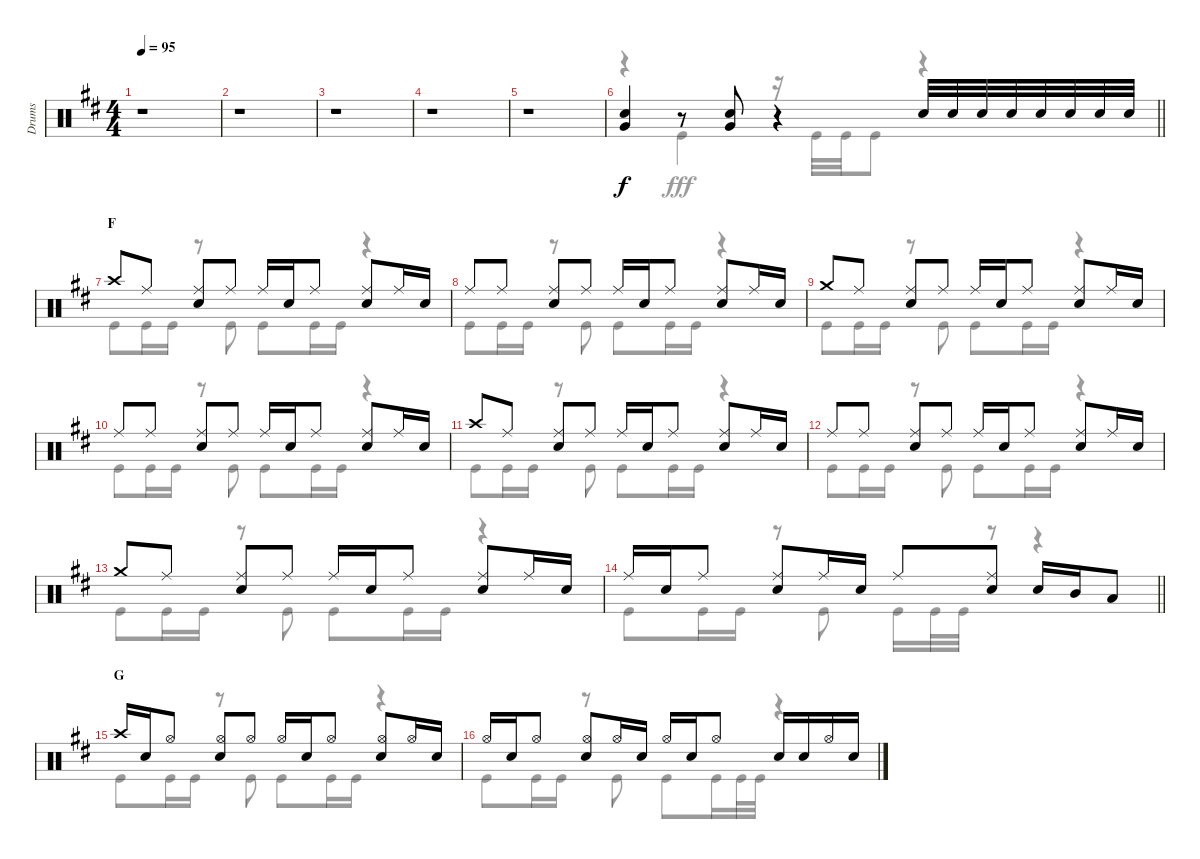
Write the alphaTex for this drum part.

\track ("Drums" "Drums") {instrument percussion}
\staff {score}
\articulation defaults
\voice
\ts (4 4)
\tempo 95
\clef neutral
\ks d
r.1{dy f} |
r.1 |
r.1 |
r.1 |
r.1 |
\barLineRight lightlight
("Snare (hit) 2" "Very Low Tom (hit)").4 r.8 ("Snare (hit) 2" "Very Low Tom (hit)").8 r.4 "Snare (hit) 2".32 "Snare (hit) 2".32 "Snare (hit) 2".32 "Snare (hit) 2".32 "Snare (hit) 2".32 "Snare (hit) 2".32 "Snare (hit) 2".32 "Snare (hit) 2".32 |
\section ("" "F")
"Crash high (hit)".8 "Ride (middle)".8 ("Ride (middle)" "Snare (hit) 2").8 "Ride (middle)".8 "Ride (middle)".16 "Snare (hit) 2".16 "Ride (middle)".8 ("Ride (middle)" "Snare (hit) 2").8 "Ride (middle)".16 "Snare (hit) 2".16 |
"Ride (middle)".8 "Ride (middle)".8 ("Ride (middle)" "Snare (hit) 2").8 "Ride (middle)".8 "Ride (middle)".16 "Snare (hit) 2".16 "Ride (middle)".8 ("Ride (middle)" "Snare (hit) 2").8 "Ride (middle)".16 "Snare (hit) 2".16 |
"Crash medium (hit)".8 "Ride (middle)".8 ("Ride (middle)" "Snare (hit) 2").8 "Ride (middle)".8 "Ride (middle)".16 "Snare (hit) 2".16 "Ride (middle)".8 ("Ride (middle)" "Snare (hit) 2").8 "Ride (middle)".16 "Snare (hit) 2".16 |
"Ride (middle)".8 "Ride (middle)".8 ("Ride (middle)" "Snare (hit) 2").8 "Ride (middle)".8 "Ride (middle)".16 "Snare (hit) 2".16 "Ride (middle)".8 ("Ride (middle)" "Snare (hit) 2").8 "Ride (middle)".16 "Snare (hit) 2".16 |
"Crash high (hit)".8 "Ride (middle)".8 ("Ride (middle)" "Snare (hit) 2").8 "Ride (middle)".8 "Ride (middle)".16 "Snare (hit) 2".16 "Ride (middle)".8 ("Ride (middle)" "Snare (hit) 2").8 "Ride (middle)".16 "Snare (hit) 2".16 |
"Ride (middle)".8 "Ride (middle)".8 ("Ride (middle)" "Snare (hit) 2").8 "Ride (middle)".8 "Ride (middle)".16 "Snare (hit) 2".16 "Ride (middle)".8 ("Ride (middle)" "Snare (hit) 2").8 "Ride (middle)".16 "Snare (hit) 2".16 |
"Crash medium (hit)".8 "Ride (middle)".8 ("Ride (middle)" "Snare (hit) 2").8 "Ride (middle)".8 "Ride (middle)".16 "Snare (hit) 2".16 "Ride (middle)".8 ("Ride (middle)" "Snare (hit) 2").8 "Ride (middle)".16 "Snare (hit) 2".16 |
\barLineRight lightlight "Ride (middle)".16 "Snare (hit) 2".16 "Ride (middle)".8
("Ride (middle)" "Snare (hit) 2").8 "Ride (middle)".16 "Snare (hit) 2".16 "Ride (middle)".8 ("Ride (middle)" "Snare (hit) 2").8 "Snare (hit) 2".16 "Mid Tom (hit)".16 "Low Tom (hit)".8 |
\section ("" "G")
"Crash high (hit)".16 "Snare (hit) 2".16 "Hi-Hat (open)".8 ("Hi-Hat (open)" "Snare (hit) 2").8 "Hi-Hat (open)".8 "Hi-Hat (open)".16 "Snare (hit) 2".16 "Hi-Hat (open)".8 ("Hi-Hat (open)" "Snare (hit) 2").8 "Hi-Hat (open)".16 "Snare (hit) 2".16 |
"Hi-Hat (open)".16 "Snare (hit) 2".16 "Hi-Hat (open)".8 ("Hi-Hat (open)" "Snare (hit) 2").8 "Hi-Hat (open)".16 "Snare (hit) 2".16 "Hi-Hat (open)".16 "Snare (hit) 2".16 "Hi-Hat (open)".8 "Snare (hit) 2".16 "Snare (hit) 2".16 "Hi-Hat (open)".16 "Snare (hit) 2".16
\voice
\clef neutral
\ottava regular
\simile none
\ks d
r.1{dy fff} |
r.1 |
r.1 |
r.1 |
r.1 |
\barLineRight lightlight
r.4 "Kick (hit)".4 r.16 "Kick (hit)".32 "Kick (hit)".32 "Kick (hit)".8 r.4 |
"Kick (hit)".8 "Kick (hit)".16 "Kick (hit)".16 r.8 "Kick (hit)".8 "Kick (hit)".8 "Kick (hit)".16 "Kick (hit)".16 r.4 |
"Kick (hit)".8 "Kick (hit)".16 "Kick (hit)".16 r.8 "Kick (hit)".8 "Kick (hit)".8 "Kick (hit)".16 "Kick (hit)".16 r.4 |
"Kick (hit)".8 "Kick (hit)".16 "Kick (hit)".16 r.8 "Kick (hit)".8 "Kick (hit)".8 "Kick (hit)".16 "Kick (hit)".16 r.4 |
"Kick (hit)".8 "Kick (hit)".16 "Kick (hit)".16 r.8 "Kick (hit)".8 "Kick (hit)".8 "Kick (hit)".16 "Kick (hit)".16 r.4 |
"Kick (hit)".8 "Kick (hit)".16 "Kick (hit)".16 r.8 "Kick (hit)".8 "Kick (hit)".8 "Kick (hit)".16 "Kick (hit)".16 r.4 |
"Kick (hit)".8 "Kick (hit)".16 "Kick (hit)".16 r.8 "Kick (hit)".8 "Kick (hit)".8 "Kick (hit)".16 "Kick (hit)".16 r.4 |
"Kick (hit)".8 "Kick (hit)".16 "Kick (hit)".16 r.8 "Kick (hit)".8 "Kick (hit)".8 "Kick (hit)".16 "Kick (hit)".16 r.4 |
\barLineRight lightlight "Kick (hit)".8 "Kick (hit)".16 "Kick (hit)".16
r.8 "Kick (hit)".8 "Kick (hit)".16 "Kick (hit)".32 "Kick (hit)".32 r.8 r.4 |
"Kick (hit)".8 "Kick (hit)".16 "Kick (hit)".16 r.8 "Kick (hit)".8 "Kick (hit)".8 "Kick (hit)".16 "Kick (hit)".16 r.4 |
"Kick (hit)".8 "Kick (hit)".16 "Kick (hit)".16 r.8 "Kick (hit)".8 "Kick (hit)".8 "Kick (hit)".16 "Kick (hit)".32 "Kick (hit)".32 r.4
